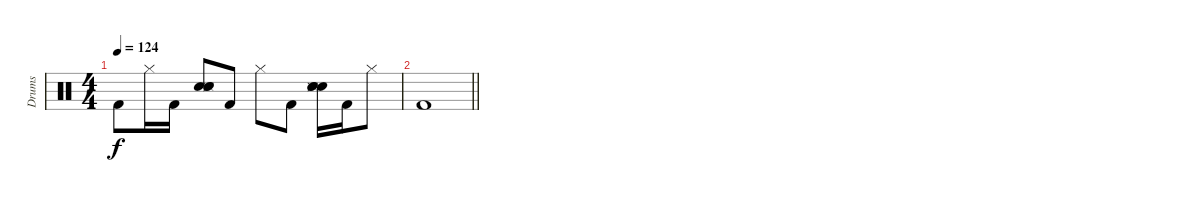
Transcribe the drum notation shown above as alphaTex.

\track ("Drums" "Drums") {instrument percussion}
\staff {score}
\articulation defaults
\ts (4 4)
\tempo 124
\clef neutral
\ks c "Kick (hit) 2".8{dy f} "Hi-Hat (closed)".16 "Kick (hit) 2".16
("Snare (hit) 2" "Snare (side stick) 3" "Hand Clap (hit)" "Electric Snare (hit)").8 "Kick (hit) 2".8 "Hi-Hat (closed)".8 "Kick (hit) 2".8 ("Snare (hit) 2" "Snare (side stick) 3" "Hand Clap (hit)" "Electric Snare (hit)").16 "Kick (hit) 2".16 "Hi-Hat (closed)".8 |
\barLineRight lightlight "Kick (hit) 2".1
